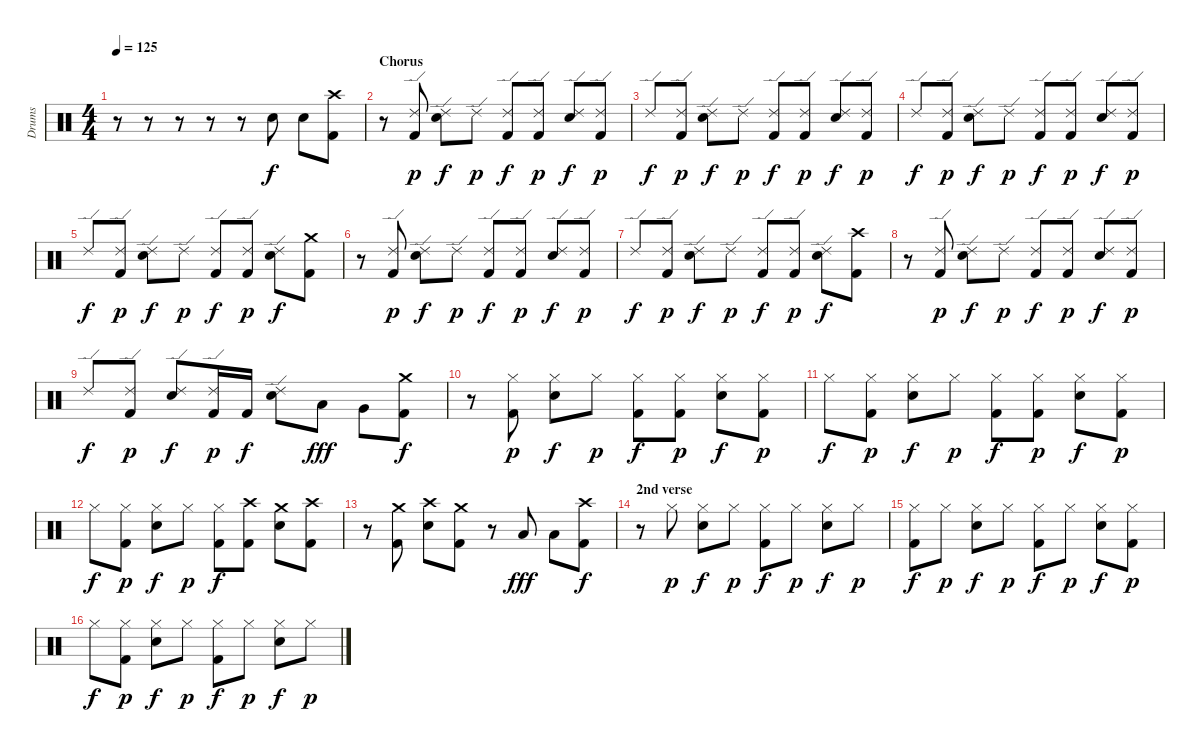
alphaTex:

\track ("Drums" "Drums") {instrument percussion}
\staff {score}
\articulation defaults
\ts (4 4)
\tempo 125
\clef neutral
\ks c
r.8{dy f} r.8 r.8 r.8 r.8 "Snare (hit) 2".8 "Snare (hit) 2".8 ("Crash high (hit)" "Kick (hit) 2").8 |
\section ("" "Chorus")
r.8 ("Ride (edge) 2" "Kick (hit) 2").8{dy p} ("Ride (edge) 2" "Snare (hit) 2").8{dy f} "Ride (edge) 2".8{dy p} ("Ride (edge) 2" "Kick (hit) 2").8{dy f} ("Ride (edge) 2" "Kick (hit) 2").8{dy p} ("Ride (edge) 2" "Snare (hit) 2").8{dy f} ("Ride (edge) 2" "Kick (hit) 2").8{dy p} |
"Ride (edge) 2".8{dy f} ("Ride (edge) 2" "Kick (hit) 2").8{dy p} ("Ride (edge) 2" "Snare (hit) 2").8{dy f} "Ride (edge) 2".8{dy p} ("Ride (edge) 2" "Kick (hit) 2").8{dy f} ("Ride (edge) 2" "Kick (hit) 2").8{dy p} ("Ride (edge) 2" "Snare (hit) 2").8{dy f} ("Ride (edge) 2" "Kick (hit) 2").8{dy p} |
"Ride (edge) 2".8{dy f} ("Ride (edge) 2" "Kick (hit) 2").8{dy p} ("Ride (edge) 2" "Snare (hit) 2").8{dy f} "Ride (edge) 2".8{dy p} ("Ride (edge) 2" "Kick (hit) 2").8{dy f} ("Ride (edge) 2" "Kick (hit) 2").8{dy p} ("Ride (edge) 2" "Snare (hit) 2").8{dy f} ("Ride (edge) 2" "Kick (hit) 2").8{dy p} |
"Ride (edge) 2".8{dy f} ("Ride (edge) 2" "Kick (hit) 2").8{dy p} ("Ride (edge) 2" "Snare (hit) 2").8{dy f} "Ride (edge) 2".8{dy p} ("Ride (edge) 2" "Kick (hit) 2").8{dy f} ("Ride (edge) 2" "Kick (hit) 2").8{dy p} ("Ride (edge) 2" "Snare (hit) 2").8{dy f} ("Crash medium (hit)" "Kick (hit) 2").8 |
r.8 ("Ride (edge) 2" "Kick (hit) 2").8{dy p} ("Ride (edge) 2" "Snare (hit) 2").8{dy f} "Ride (edge) 2".8{dy p} ("Ride (edge) 2" "Kick (hit) 2").8{dy f} ("Ride (edge) 2" "Kick (hit) 2").8{dy p} ("Ride (edge) 2" "Snare (hit) 2").8{dy f} ("Ride (edge) 2" "Kick (hit) 2").8{dy p} |
"Ride (edge) 2".8{dy f} ("Ride (edge) 2" "Kick (hit) 2").8{dy p} ("Ride (edge) 2" "Snare (hit) 2").8{dy f} "Ride (edge) 2".8{dy p} ("Ride (edge) 2" "Kick (hit) 2").8{dy f} ("Ride (edge) 2" "Kick (hit) 2").8{dy p} ("Ride (edge) 2" "Snare (hit) 2").8{dy f} ("Crash high (hit)" "Kick (hit) 2").8 |
r.8 ("Ride (edge) 2" "Kick (hit) 2").8{dy p} ("Ride (edge) 2" "Snare (hit) 2").8{dy f} "Ride (edge) 2".8{dy p} ("Ride (edge) 2" "Kick (hit) 2").8{dy f} ("Ride (edge) 2" "Kick (hit) 2").8{dy p} ("Ride (edge) 2" "Snare (hit) 2").8{dy f} ("Ride (edge) 2" "Kick (hit) 2").8{dy p} |
"Ride (edge) 2".8{dy f} ("Ride (edge) 2" "Kick (hit) 2").8{dy p} ("Ride (edge) 2" "Snare (hit) 2").8{dy f} ("Ride (edge) 2" "Kick (hit) 2").16{dy p} "Kick (hit) 2".16{dy f} ("Ride (edge) 2" "Snare (hit) 2").8 "Low Tom (hit)".8{dy fff} "Very Low Tom (hit)".8 ("Crash medium (hit)" "Kick (hit) 2").8{dy f} |
\section ("" "")
r.8 ("Hi-Hat (closed)" "Kick (hit) 2").8{dy p} ("Hi-Hat (closed)" "Snare (hit) 2").8{dy f} "Hi-Hat (closed)".8{dy p} ("Hi-Hat (closed)" "Kick (hit) 2").8{dy f} ("Hi-Hat (closed)" "Kick (hit) 2").8{dy p} ("Hi-Hat (closed)" "Snare (hit) 2").8{dy f} ("Hi-Hat (closed)" "Kick (hit) 2").8{dy p} |
"Hi-Hat (closed)".8{dy f} ("Hi-Hat (closed)" "Kick (hit) 2").8{dy p} ("Hi-Hat (closed)" "Snare (hit) 2").8{dy f} "Hi-Hat (closed)".8{dy p} ("Hi-Hat (closed)" "Kick (hit) 2").8{dy f} ("Hi-Hat (closed)" "Kick (hit) 2").8{dy p} ("Hi-Hat (closed)" "Snare (hit) 2").8{dy f} ("Hi-Hat (closed)" "Kick (hit) 2").8{dy p} |
"Hi-Hat (closed)".8{dy f} ("Hi-Hat (closed)" "Kick (hit) 2").8{dy p} ("Hi-Hat (closed)" "Snare (hit) 2").8{dy f} "Hi-Hat (closed)".8{dy p} ("Hi-Hat (closed)" "Kick (hit) 2").8{dy f} ("Crash high (hit)" "Kick (hit) 2").8 ("Crash medium (hit)" "Snare (hit) 2").8 ("Crash high (hit)" "Kick (hit) 2").8 |
r.8 ("Crash medium (hit)" "Kick (hit) 2").8 ("Crash high (hit)" "Snare (hit) 2").8 ("Crash medium (hit)" "Kick (hit) 2").8 r.8 "Low Tom (hit)".8{dy fff} "Low Tom (hit)".8 ("Crash high (hit)" "Kick (hit) 2").8{dy f} |
\section ("" "2nd verse")
r.8 "Hi-Hat (closed)".8{dy p} ("Hi-Hat (closed)" "Snare (hit) 2").8{dy f} "Hi-Hat (closed)".8{dy p} ("Hi-Hat (closed)" "Kick (hit) 2").8{dy f} "Hi-Hat (closed)".8{dy p} ("Hi-Hat (closed)" "Snare (hit) 2").8{dy f} "Hi-Hat (closed)".8{dy p} |
("Hi-Hat (closed)" "Kick (hit) 2").8{dy f} "Hi-Hat (closed)".8{dy p} ("Hi-Hat (closed)" "Snare (hit) 2").8{dy f} "Hi-Hat (closed)".8{dy p} ("Hi-Hat (closed)" "Kick (hit) 2").8{dy f} "Hi-Hat (closed)".8{dy p} ("Hi-Hat (closed)" "Snare (hit) 2").8{dy f} ("Hi-Hat (closed)" "Kick (hit) 2").8{dy p} |
"Hi-Hat (closed)".8{dy f} ("Hi-Hat (closed)" "Kick (hit) 2").8{dy p} ("Hi-Hat (closed)" "Snare (hit) 2").8{dy f} "Hi-Hat (closed)".8{dy p} ("Hi-Hat (closed)" "Kick (hit) 2").8{dy f} "Hi-Hat (closed)".8{dy p} ("Hi-Hat (closed)" "Snare (hit) 2").8{dy f} "Hi-Hat (closed)".8{dy p}
